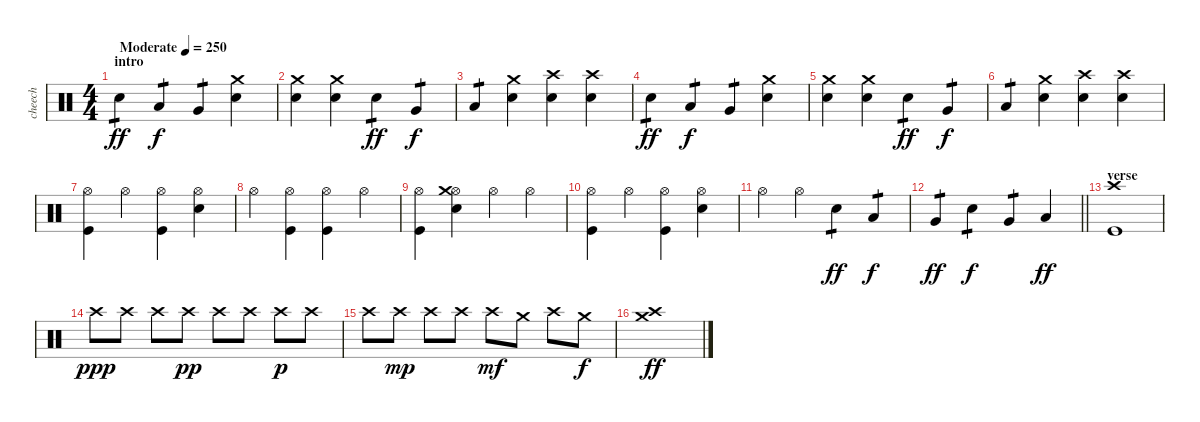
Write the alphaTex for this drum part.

\track ("cheech" "cheech") {instrument percussion}
\staff {score}
\articulation defaults
\ts (4 4)
\section ("" "intro")
\tempo (250 "Moderate")
\clef neutral
\ks c "Electric Snare (hit)".4{tp 1 dy ff} "Low Tom (hit)".4{tp 1 dy f} "Very Low Tom (hit)".4{tp 1}
("Crash medium (hit)" "Electric Snare (hit)").4 |
("Crash medium (hit)" "Electric Snare (hit)").4 ("Crash medium (hit)" "Electric Snare (hit)").4 "Electric Snare (hit)".4{tp 1 dy ff} "Very Low Tom (hit)".4{tp 1 dy f} |
"Low Floor Tom (hit)".4{tp 1} ("Crash medium (hit)" "Electric Snare (hit)").4 ("Crash high (hit)" "Electric Snare (hit)").4 ("Crash high (hit)" "Electric Snare (hit)").4 |
"Electric Snare (hit)".4{tp 1 dy ff} "Low Tom (hit)".4{tp 1 dy f} "Very Low Tom (hit)".4{tp 1} ("Crash medium (hit)" "Electric Snare (hit)").4 |
("Crash medium (hit)" "Electric Snare (hit)").4 ("Crash medium (hit)" "Electric Snare (hit)").4 "Electric Snare (hit)".4{tp 1 dy ff} "Very Low Tom (hit)".4{tp 1 dy f} |
"Low Floor Tom (hit)".4{tp 1} ("Crash medium (hit)" "Electric Snare (hit)").4 ("Crash high (hit)" "Electric Snare (hit)").4 ("Crash high (hit)" "Electric Snare (hit)").4 |
("Hi-Hat (open)" "Kick (hit)").4 "Hi-Hat (open)".4 ("Hi-Hat (open)" "Kick (hit)").4 ("Hi-Hat (open)" "Electric Snare (hit)").4 |
"Hi-Hat (open)".4 ("Hi-Hat (open)" "Kick (hit)").4 ("Hi-Hat (open)" "Kick (hit)").4 "Hi-Hat (open)".4 |
("Hi-Hat (open)" "Kick (hit)").4 ("Hi-Hat (open)" "Crash medium (hit)" "Electric Snare (hit)").4 "Hi-Hat (open)".4 "Hi-Hat (open)".4 |
("Hi-Hat (open)" "Kick (hit)").4 "Hi-Hat (open)".4 ("Hi-Hat (open)" "Kick (hit)").4 ("Hi-Hat (open)" "Electric Snare (hit)").4 |
"Hi-Hat (open)".4 "Hi-Hat (open)".4 "Electric Snare (hit)".4{tp 1 dy ff} "Low Tom (hit)".4{tp 1 dy f} |
\barLineRight lightlight "Very Low Tom (hit)".4{tp 1 dy ff} "Electric Snare (hit)".4{tp 1 dy f} "Very Low Tom (hit)".4{tp 1} "Low Floor Tom (hit)".4{dy ff}
|
\section ("" "verse")
("Crash high (hit)" "Kick (hit)").1 |
"Crash high (hit)".8{dy ppp} "Crash high (hit)".8 "Crash high (hit)".8 "Crash high (hit)".8{dy pp} "Crash high (hit)".8 "Crash high (hit)".8 "Crash high (hit)".8{dy p} "Crash high (hit)".8 |
"Crash high (hit)".8 "Crash high (hit)".8{dy mp} "Crash high (hit)".8 "Crash high (hit)".8 "Crash high (hit)".8{dy mf} "Crash medium (hit)".8 "Crash high (hit)".8 "Crash medium (hit)".8{dy f} |
("Crash high (hit)" "Crash medium (hit)").1{dy ff}
